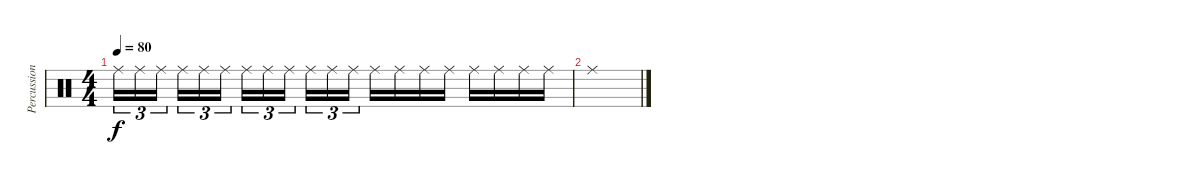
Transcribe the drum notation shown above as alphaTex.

\track ("Percussion" "Percussion") {instrument percussion}
\staff {score}
\articulation defaults
\ts (4 4)
\tempo 80
\clef neutral
\ks c "Ride (middle)".16{tu (3 2) dy f} "Ride (middle)".16{tu (3 2)} "Ride (middle)".16{tu (3 2)} "Ride (middle)".16{tu (3 2)} "Ride (middle)".16{tu (3 2)} "Ride (middle)".16{tu (3 2)} "Ride (middle)".16{tu (3 2)} "Ride (middle)".16{tu (3 2)} "Ride (middle)".16{tu (3 2)} "Ride (middle)".16{tu (3 2)} "Ride (middle)".16{tu (3 2)} "Ride (middle)".16{tu (3 2)} "Ride (middle)".16 "Ride (middle)".16 "Ride (middle)".16 "Ride (middle)".16 "Ride (middle)".16 "Ride (middle)".16 "Ride (middle)".16 "Ride (middle)".16
|
"Ride (middle)".1
